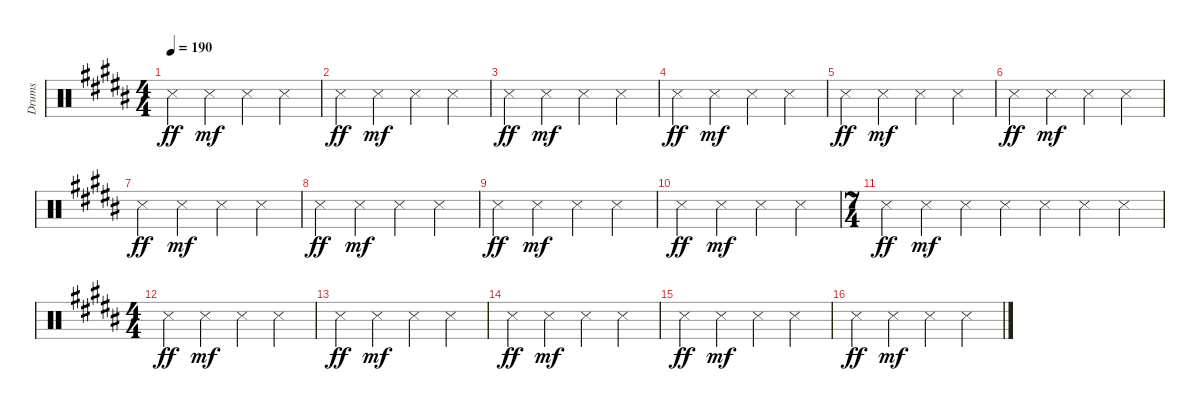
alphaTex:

\bracketExtendMode groupsimilarinstruments
\otherSystemsTrackNameOrientation horizontal
\track ("Drumkit" "Drums") {mute instrument percussion}
\staff {score}
\articulation defaults
\ts (4 4)
\tempo 190
\clef neutral
\scale
0.333333
\ks b "Snare (side stick) 3"{acc forcenatural}.4{dy ff} "Snare (side stick) 3"{acc forcenatural}.4{dy mf} "Snare (side stick) 3"{acc forcenatural}.4 "Snare (side stick) 3"{acc forcenatural}.4
|
\scale
0.333333 "Snare (side stick) 3"{acc forcenatural}.4{dy ff} "Snare (side stick) 3"{acc forcenatural}.4{dy mf} "Snare (side stick) 3"{acc forcenatural}.4 "Snare (side stick) 3"{acc forcenatural}.4 |
\scale
0.333333 "Snare (side stick) 3"{acc forcenatural}.4{dy ff} "Snare (side stick) 3"{acc forcenatural}.4{dy mf} "Snare (side stick) 3"{acc forcenatural}.4 "Snare (side stick) 3"{acc forcenatural}.4 |
\scale
0.333333 "Snare (side stick) 3"{acc forcenatural}.4{dy ff} "Snare (side stick) 3"{acc forcenatural}.4{dy mf} "Snare (side stick) 3"{acc forcenatural}.4 "Snare (side stick) 3"{acc forcenatural}.4 |
\scale
0.333333 "Snare (side stick) 3"{acc forcenatural}.4{dy ff} "Snare (side stick) 3"{acc forcenatural}.4{dy mf} "Snare (side stick) 3"{acc forcenatural}.4 "Snare (side stick) 3"{acc forcenatural}.4 |
\scale
0.333333 "Snare (side stick) 3"{acc forcenatural}.4{dy ff} "Snare (side stick) 3"{acc forcenatural}.4{dy mf} "Snare (side stick) 3"{acc forcenatural}.4 "Snare (side stick) 3"{acc forcenatural}.4 |
\scale
0.333333 "Snare (side stick) 3"{acc forcenatural}.4{dy ff} "Snare (side stick) 3"{acc forcenatural}.4{dy mf} "Snare (side stick) 3"{acc forcenatural}.4 "Snare (side stick) 3"{acc forcenatural}.4 |
\scale
0.333333 "Snare (side stick) 3"{acc forcenatural}.4{dy ff} "Snare (side stick) 3"{acc forcenatural}.4{dy mf} "Snare (side stick) 3"{acc forcenatural}.4 "Snare (side stick) 3"{acc forcenatural}.4 |
\scale
0.333333 "Snare (side stick) 3"{acc forcenatural}.4{dy ff} "Snare (side stick) 3"{acc forcenatural}.4{dy mf} "Snare (side stick) 3"{acc forcenatural}.4 "Snare (side stick) 3"{acc forcenatural}.4 |
\scale
0.333333 "Snare (side stick) 3"{acc forcenatural}.4{dy ff} "Snare (side stick) 3"{acc forcenatural}.4{dy mf} "Snare (side stick) 3"{acc forcenatural}.4 "Snare (side stick) 3"{acc forcenatural}.4 |
\ts (7 4)
\scale
0.390805 "Snare (side stick) 3"{acc forcenatural}.4{dy ff} "Snare (side stick) 3"{acc forcenatural}.4{dy mf} "Snare (side stick) 3"{acc forcenatural}.4 "Snare (side stick) 3"{acc forcenatural}.4 "Snare (side stick) 3"{acc forcenatural}.4 "Snare (side stick) 3"{acc forcenatural}.4 "Snare (side stick) 3"{acc forcenatural}.4 |
\ts (4 4)
\scale
0.390805 "Snare (side stick) 3"{acc forcenatural}.4{dy ff} "Snare (side stick) 3"{acc forcenatural}.4{dy mf} "Snare (side stick) 3"{acc forcenatural}.4 "Snare (side stick) 3"{acc forcenatural}.4 |
\scale
0.218391 "Snare (side stick) 3"{acc forcenatural}.4{dy ff} "Snare (side stick) 3"{acc forcenatural}.4{dy mf} "Snare (side stick) 3"{acc forcenatural}.4 "Snare (side stick) 3"{acc forcenatural}.4 |
\scale
0.333333 "Snare (side stick) 3"{acc forcenatural}.4{dy ff} "Snare (side stick) 3"{acc forcenatural}.4{dy mf} "Snare (side stick) 3"{acc forcenatural}.4 "Snare (side stick) 3"{acc forcenatural}.4 |
\scale
0.333333 "Snare (side stick) 3"{acc forcenatural}.4{dy ff} "Snare (side stick) 3"{acc forcenatural}.4{dy mf} "Snare (side stick) 3"{acc forcenatural}.4 "Snare (side stick) 3"{acc forcenatural}.4 |
\scale
0.333333 "Snare (side stick) 3"{acc forcenatural}.4{dy ff} "Snare (side stick) 3"{acc forcenatural}.4{dy mf} "Snare (side stick) 3"{acc forcenatural}.4 "Snare (side stick) 3"{acc forcenatural}.4
